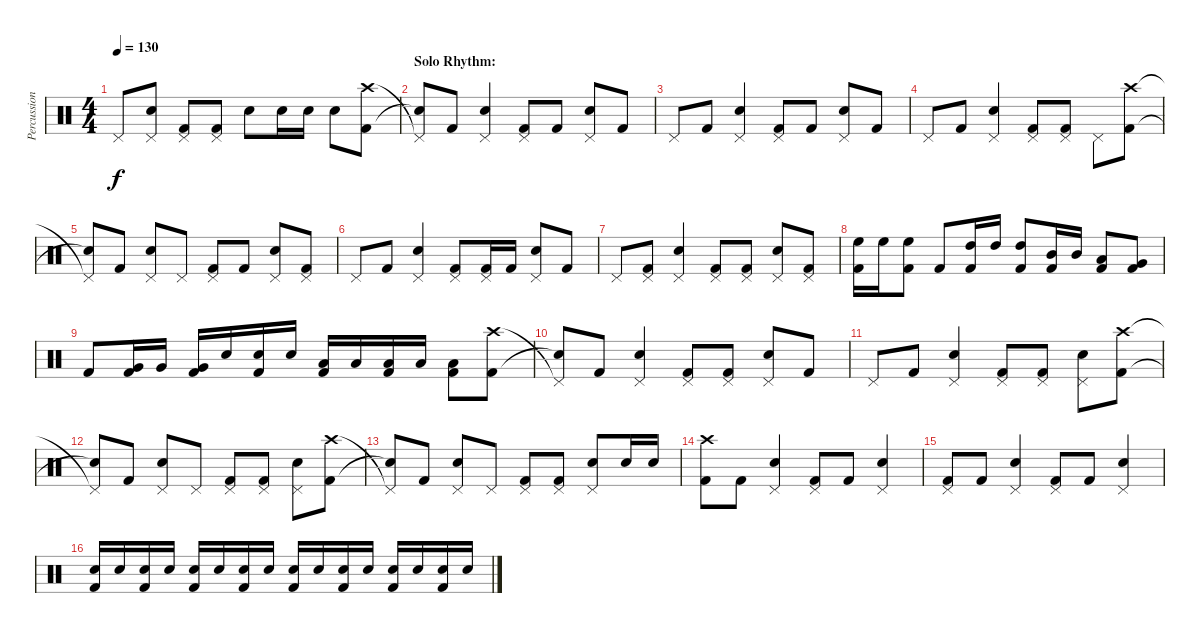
\track ("Percussion" "Percussion") {instrument percussion}
\staff {score}
\articulation defaults
\ts (4 4)
\tempo 130
\clef neutral
\ks c "Pedal Hi-Hat (hit)".8{dy f}
("Pedal Hi-Hat (hit)" "Electric Snare (hit)").8 ("Pedal Hi-Hat (hit)" "Kick (hit) 2").8 ("Pedal Hi-Hat (hit)" "Kick (hit) 2").8 "Electric Snare (hit)".8 "Electric Snare (hit)".16 "Electric Snare (hit)".16 "Electric Snare (hit)".8 ("Crash high (hit)" "Kick (hit) 2").8 |
\section ("" "Solo Rhythm:")
("Pedal Hi-Hat (hit)"{t} "Snare (hit)"{t}).8 "Kick (hit) 2".8 ("Pedal Hi-Hat (hit)" "Electric Snare (hit)").4 ("Pedal Hi-Hat (hit)" "Kick (hit) 2").8 "Kick (hit) 2".8 ("Pedal Hi-Hat (hit)" "Electric Snare (hit)").8 "Kick (hit) 2".8 |
"Pedal Hi-Hat (hit)".8 "Kick (hit) 2".8 ("Pedal Hi-Hat (hit)" "Electric Snare (hit)").4 ("Pedal Hi-Hat (hit)" "Kick (hit) 2").8 "Kick (hit) 2".8 ("Pedal Hi-Hat (hit)" "Electric Snare (hit)").8 "Kick (hit) 2".8 |
"Pedal Hi-Hat (hit)".8 "Kick (hit) 2".8 ("Pedal Hi-Hat (hit)" "Electric Snare (hit)").4 ("Pedal Hi-Hat (hit)" "Kick (hit) 2").8 ("Pedal Hi-Hat (hit)" "Kick (hit) 2").8 "Pedal Hi-Hat (hit)".8 ("Crash high (hit)" "Kick (hit) 2").8 |
("Pedal Hi-Hat (hit)"{t} "Snare (hit)"{t}).8 "Kick (hit) 2".8 ("Pedal Hi-Hat (hit)" "Electric Snare (hit)").8 "Pedal Hi-Hat (hit)".8 ("Pedal Hi-Hat (hit)" "Kick (hit) 2").8 "Kick (hit) 2".8 ("Pedal Hi-Hat (hit)" "Electric Snare (hit)").8 ("Pedal Hi-Hat (hit)" "Kick (hit) 2").8 |
"Pedal Hi-Hat (hit)".8 "Kick (hit) 2".8 ("Pedal Hi-Hat (hit)" "Electric Snare (hit)").4 ("Pedal Hi-Hat (hit)" "Kick (hit) 2").8 ("Pedal Hi-Hat (hit)" "Kick (hit) 2").16 "Kick (hit) 2".16 ("Pedal Hi-Hat (hit)" "Electric Snare (hit)").8 "Kick (hit) 2".8 |
"Pedal Hi-Hat (hit)".8 ("Pedal Hi-Hat (hit)" "Kick (hit) 2").8 ("Pedal Hi-Hat (hit)" "Electric Snare (hit)").4 ("Pedal Hi-Hat (hit)" "Kick (hit) 2").8 ("Pedal Hi-Hat (hit)" "Kick (hit) 2").8 ("Pedal Hi-Hat (hit)" "Electric Snare (hit)").8 ("Pedal Hi-Hat (hit)" "Kick (hit) 2").8 |
("High Floor Tom (hit)" "Kick (hit) 2").16 "High Floor Tom (hit)".16 ("High Floor Tom (hit)" "Kick (hit) 2").8 "Kick (hit) 2".8 ("High Tom (hit)" "Kick (hit) 2").16 "High Tom (hit)".16 ("High Tom (hit)" "Kick (hit) 2").8 ("Mid Tom (hit)" "Kick (hit) 2").16 "Mid Tom (hit)".16 ("Low Tom (hit)" "Kick (hit) 2").8 ("Very Low Tom (hit)" "Kick (hit) 2").8 |
"Kick (hit) 2".8 ("Very Low Tom (hit)" "Kick (hit) 2").16 "Very Low Tom (hit)".16 ("Very Low Tom (hit)" "Kick (hit) 2").16 "Electric Snare (hit)".16 ("Electric Snare (hit)" "Kick (hit) 2").16 "Electric Snare (hit)".16 ("Low Tom (hit)" "Kick (hit) 2").16 "Low Tom (hit)".16 ("Low Tom (hit)" "Kick (hit) 2").16 "Low Tom (hit)".16 ("Low Tom (hit)" "Kick (hit) 2").8 ("Crash high (hit)" "Kick (hit) 2").8 |
("Pedal Hi-Hat (hit)"{t} "Snare (hit)"{t}).8 "Kick (hit) 2".8 ("Pedal Hi-Hat (hit)" "Electric Snare (hit)").4 ("Pedal Hi-Hat (hit)" "Kick (hit) 2").8 ("Pedal Hi-Hat (hit)" "Kick (hit) 2").8 ("Pedal Hi-Hat (hit)" "Electric Snare (hit)").8 "Kick (hit) 2".8 |
"Pedal Hi-Hat (hit)".8 "Kick (hit) 2".8 ("Pedal Hi-Hat (hit)" "Electric Snare (hit)").4 ("Pedal Hi-Hat (hit)" "Kick (hit) 2").8 ("Pedal Hi-Hat (hit)" "Kick (hit) 2").8 ("Pedal Hi-Hat (hit)" "Electric Snare (hit)").8 ("Crash high (hit)" "Kick (hit) 2").8 |
("Pedal Hi-Hat (hit)"{t} "Snare (hit)"{t}).8 "Kick (hit) 2".8 ("Pedal Hi-Hat (hit)" "Electric Snare (hit)").8 "Pedal Hi-Hat (hit)".8 ("Pedal Hi-Hat (hit)" "Kick (hit) 2").8 ("Pedal Hi-Hat (hit)" "Kick (hit) 2").8 ("Pedal Hi-Hat (hit)" "Electric Snare (hit)").8 ("Crash high (hit)" "Kick (hit) 2").8 |
("Pedal Hi-Hat (hit)"{t} "Snare (hit)"{t}).8 "Kick (hit) 2".8 ("Pedal Hi-Hat (hit)" "Electric Snare (hit)").8 "Pedal Hi-Hat (hit)".8 ("Pedal Hi-Hat (hit)" "Kick (hit) 2").8 ("Pedal Hi-Hat (hit)" "Kick (hit) 2").8 ("Pedal Hi-Hat (hit)" "Electric Snare (hit)").8 "Electric Snare (hit)".16 "Electric Snare (hit)".16 |
("Crash high (hit)" "Kick (hit) 2").8 "Kick (hit) 2".8 ("Pedal Hi-Hat (hit)" "Electric Snare (hit)").4 ("Pedal Hi-Hat (hit)" "Kick (hit) 2").8 "Kick (hit) 2".8 ("Pedal Hi-Hat (hit)" "Electric Snare (hit)").4 |
("Pedal Hi-Hat (hit)" "Kick (hit) 2").8 "Kick (hit) 2".8 ("Pedal Hi-Hat (hit)" "Electric Snare (hit)").4 ("Pedal Hi-Hat (hit)" "Kick (hit) 2").8 "Kick (hit) 2".8 ("Pedal Hi-Hat (hit)" "Electric Snare (hit)").4 |
("Electric Snare (hit)" "Kick (hit) 2").16 "Electric Snare (hit)".16 ("Electric Snare (hit)" "Kick (hit) 2").16 "Electric Snare (hit)".16 ("Electric Snare (hit)" "Kick (hit) 2").16 "Electric Snare (hit)".16 ("Electric Snare (hit)" "Kick (hit) 2").16 "Electric Snare (hit)".16 ("Electric Snare (hit)" "Kick (hit) 2").16 "Electric Snare (hit)".16 ("Electric Snare (hit)" "Kick (hit) 2").16 "Electric Snare (hit)".16 ("Electric Snare (hit)" "Kick (hit) 2").16 "Electric Snare (hit)".16 ("Electric Snare (hit)" "Kick (hit) 2").16 "Electric Snare (hit)".16
